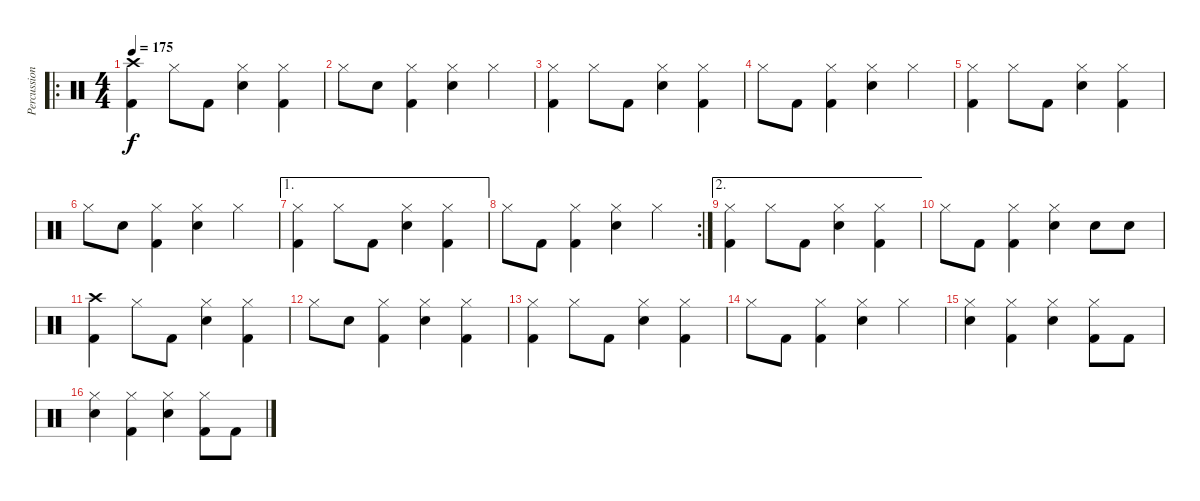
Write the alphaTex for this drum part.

\track ("Percussion" "Percussion") {instrument percussion}
\staff {score}
\articulation defaults
\ro
\ts (4 4)
\tempo 175
\clef neutral
\ks c
("Crash high (hit)" "Kick (hit) 2").4{dy f} "Hi-Hat (closed)".8 "Kick (hit) 2".8 ("Hi-Hat (closed)" "Electric Snare (hit)").4 ("Hi-Hat (closed)" "Kick (hit) 2").4 |
"Hi-Hat (closed)".8 "Electric Snare (hit)".8 ("Hi-Hat (closed)" "Kick (hit) 2").4 ("Hi-Hat (closed)" "Electric Snare (hit)").4 "Hi-Hat (closed)".4 |
("Hi-Hat (closed)" "Kick (hit) 2").4 "Hi-Hat (closed)".8 "Kick (hit) 2".8 ("Hi-Hat (closed)" "Electric Snare (hit)").4 ("Hi-Hat (closed)" "Kick (hit) 2").4 |
"Hi-Hat (closed)".8 "Kick (hit) 2".8 ("Hi-Hat (closed)" "Kick (hit) 2").4 ("Hi-Hat (closed)" "Electric Snare (hit)").4 "Hi-Hat (closed)".4 |
("Hi-Hat (closed)" "Kick (hit) 2").4 "Hi-Hat (closed)".8 "Kick (hit) 2".8 ("Hi-Hat (closed)" "Electric Snare (hit)").4 ("Hi-Hat (closed)" "Kick (hit) 2").4 |
"Hi-Hat (closed)".8 "Electric Snare (hit)".8 ("Hi-Hat (closed)" "Kick (hit) 2").4 ("Hi-Hat (closed)" "Electric Snare (hit)").4 "Hi-Hat (closed)".4 |
\ae 1
("Hi-Hat (closed)" "Kick (hit) 2").4 "Hi-Hat (closed)".8 "Kick (hit) 2".8 ("Hi-Hat (closed)" "Electric Snare (hit)").4 ("Hi-Hat (closed)" "Kick (hit) 2").4 |
\rc 2 "Hi-Hat (closed)".8 "Kick (hit) 2".8
("Hi-Hat (closed)" "Kick (hit) 2").4 ("Hi-Hat (closed)" "Electric Snare (hit)").4 "Hi-Hat (closed)".4 |
\ae 2
("Hi-Hat (closed)" "Kick (hit) 2").4 "Hi-Hat (closed)".8 "Kick (hit) 2".8 ("Hi-Hat (closed)" "Electric Snare (hit)").4 ("Hi-Hat (closed)" "Kick (hit) 2").4 |
"Hi-Hat (closed)".8 "Kick (hit) 2".8 ("Hi-Hat (closed)" "Kick (hit) 2").4 ("Hi-Hat (closed)" "Electric Snare (hit)").4 "Electric Snare (hit)".8 "Electric Snare (hit)".8 |
("Crash high (hit)" "Kick (hit) 2").4 "Hi-Hat (closed)".8 "Kick (hit) 2".8 ("Hi-Hat (closed)" "Electric Snare (hit)").4 ("Hi-Hat (closed)" "Kick (hit) 2").4 |
"Hi-Hat (closed)".8 "Electric Snare (hit)".8 ("Hi-Hat (closed)" "Kick (hit) 2").4 ("Hi-Hat (closed)" "Electric Snare (hit)").4 ("Hi-Hat (closed)" "Kick (hit) 2").4 |
("Hi-Hat (closed)" "Kick (hit) 2").4 "Hi-Hat (closed)".8 "Kick (hit) 2".8 ("Hi-Hat (closed)" "Electric Snare (hit)").4 ("Hi-Hat (closed)" "Kick (hit) 2").4 |
"Hi-Hat (closed)".8 "Kick (hit) 2".8 ("Hi-Hat (closed)" "Kick (hit) 2").4 ("Hi-Hat (closed)" "Electric Snare (hit)").4 "Hi-Hat (closed)".4 |
("Hi-Hat (closed)" "Electric Snare (hit)").4 ("Hi-Hat (closed)" "Kick (hit) 2").4 ("Hi-Hat (closed)" "Electric Snare (hit)").4 ("Hi-Hat (closed)" "Kick (hit) 2").8 "Kick (hit) 2".8 |
("Hi-Hat (closed)" "Electric Snare (hit)").4 ("Hi-Hat (closed)" "Kick (hit) 2").4 ("Hi-Hat (closed)" "Electric Snare (hit)").4 ("Hi-Hat (closed)" "Kick (hit) 2").8 "Kick (hit) 2".8
